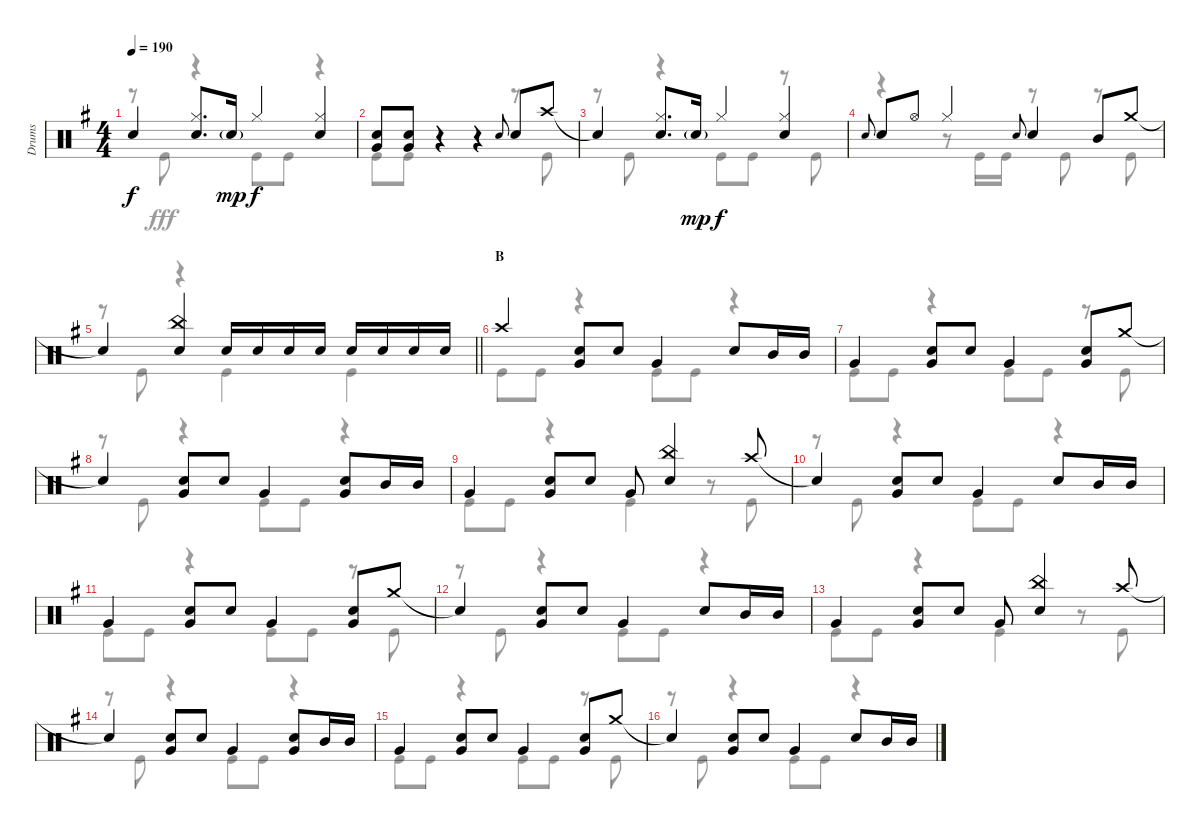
\track ("Drums" "Drums") {instrument percussion}
\staff {score}
\articulation defaults
\voice
\ts (4 4)
\tempo 190
\clef neutral
\ks g "Snare (hit)"{t}.4{dy f}
("Hi-Hat (closed)" "Snare (hit) 2").8{d} "Snare (hit) 2"{g}.16{dy mp} "Hi-Hat (closed)".4{dy f} ("Hi-Hat (closed)" "Snare (hit) 2").4 |
("Snare (hit) 2" "Very Low Tom (hit)").8 ("Snare (hit) 2" "Very Low Tom (hit)").8 r.4 r.4 "Snare (hit) 2".8{gr onbeat} "Snare (hit) 2".8 "Crash high (hit)".8 |
"Snare (hit)"{t}.4 ("Hi-Hat (closed)" "Snare (hit) 2").8{d} "Snare (hit) 2"{g}.16{dy mp} "Hi-Hat (closed)".4{dy f} ("Hi-Hat (closed)" "Snare (hit) 2").4 |
"Snare (hit) 2".8{gr onbeat} "Snare (hit) 2".8 "Hi-Hat (open)".8 "Hi-Hat (closed)".4 "Snare (hit) 2".8{gr onbeat} "Snare (hit) 2".4 "Mid Tom (hit)".8 "Crash medium (hit)".8 |
\barLineRight lightlight "Snare (hit)"{t}.4
("China (hit)" "Snare (hit) 2").4 "Snare (hit) 2".16 "Snare (hit) 2".16 "Snare (hit) 2".16 "Snare (hit) 2".16 "Snare (hit) 2".16 "Snare (hit) 2".16 "Snare (hit) 2".16 "Snare (hit) 2".16 |
\section ("" "B")
"Crash high (hit)".4 ("Snare (hit) 2" "Very Low Tom (hit)").8 "Snare (hit) 2".8 "Very Low Tom (hit)".4 "Snare (hit) 2".8 "Mid Tom (hit)".16 "Mid Tom (hit)".16 |
"Very Low Tom (hit)".4 ("Snare (hit) 2" "Very Low Tom (hit)").8 "Snare (hit) 2".8 "Very Low Tom (hit)".4 ("Snare (hit) 2" "Very Low Tom (hit)").8 "Crash medium (hit)".8 |
"Snare (hit)"{t}.4 ("Snare (hit) 2" "Very Low Tom (hit)").8 "Snare (hit) 2".8 "Very Low Tom (hit)".4 ("Snare (hit) 2" "Very Low Tom (hit)").8 "Mid Tom (hit)".16 "Mid Tom (hit)".16 |
"Very Low Tom (hit)".4 ("Snare (hit) 2" "Very Low Tom (hit)").8 "Snare (hit) 2".8 "Very Low Tom (hit)".8 ("China (hit)" "Snare (hit) 2").4 "Crash high (hit)".8 |
"Snare (hit)"{t}.4 ("Snare (hit) 2" "Very Low Tom (hit)").8 "Snare (hit) 2".8 "Very Low Tom (hit)".4 "Snare (hit) 2".8 "Mid Tom (hit)".16 "Mid Tom (hit)".16 |
"Very Low Tom (hit)".4 ("Snare (hit) 2" "Very Low Tom (hit)").8 "Snare (hit) 2".8 "Very Low Tom (hit)".4 ("Snare (hit) 2" "Very Low Tom (hit)").8 "Crash medium (hit)".8 |
"Snare (hit)"{t}.4 ("Snare (hit) 2" "Very Low Tom (hit)").8 "Snare (hit) 2".8 "Very Low Tom (hit)".4 "Snare (hit) 2".8 "Mid Tom (hit)".16 "Mid Tom (hit)".16 |
"Very Low Tom (hit)".4 ("Snare (hit) 2" "Very Low Tom (hit)").8 "Snare (hit) 2".8 "Very Low Tom (hit)".8 ("China (hit)" "Snare (hit) 2").4 "Crash high (hit)".8 |
"Snare (hit)"{t}.4 ("Snare (hit) 2" "Very Low Tom (hit)").8 "Snare (hit) 2".8 "Very Low Tom (hit)".4 ("Snare (hit) 2" "Very Low Tom (hit)").8 "Mid Tom (hit)".16 "Mid Tom (hit)".16 |
"Very Low Tom (hit)".4 ("Snare (hit) 2" "Very Low Tom (hit)").8 "Snare (hit) 2".8 "Very Low Tom (hit)".4 ("Snare (hit) 2" "Very Low Tom (hit)").8 "Crash medium (hit)".8 |
"Snare (hit)"{t}.4 ("Snare (hit) 2" "Very Low Tom (hit)").8 "Snare (hit) 2".8 "Very Low Tom (hit)".4 "Snare (hit) 2".8 "Mid Tom (hit)".16 "Mid Tom (hit)".16
\voice
\clef neutral
\ottava regular
\simile none
\ks g
r.8{dy fff} "Kick (hit)".8 r.4 "Kick (hit)".8 "Kick (hit)".8 r.4 |
"Kick (hit)".8 "Kick (hit)".8 r.4 r.4 r.8 "Kick (hit)".8 |
r.8 "Kick (hit)".8 r.4 "Kick (hit)".8 "Kick (hit)".8 r.8 "Kick (hit)".8 |
r.4 r.8 "Kick (hit)".16 "Kick (hit)".16 r.8 "Kick (hit)".8 r.8 "Kick (hit)".8 |
\barLineRight lightlight
r.8 "Kick (hit)".8 r.4 "Kick (hit)".4 "Kick (hit)".4 |
"Kick (hit)".8 "Kick (hit)".8 r.4 "Kick (hit)".8 "Kick (hit)".8 r.4 |
"Kick (hit)".8 "Kick (hit)".8 r.4 "Kick (hit)".8 "Kick (hit)".8 r.8 "Kick (hit)".8 |
r.8 "Kick (hit)".8 r.4 "Kick (hit)".8 "Kick (hit)".8 r.4 |
"Kick (hit)".8 "Kick (hit)".8 r.4 "Kick (hit)".4 r.8 "Kick (hit)".8 |
r.8 "Kick (hit)".8 r.4 "Kick (hit)".8 "Kick (hit)".8 r.4 |
"Kick (hit)".8 "Kick (hit)".8 r.4 "Kick (hit)".8 "Kick (hit)".8 r.8 "Kick (hit)".8 |
r.8 "Kick (hit)".8 r.4 "Kick (hit)".8 "Kick (hit)".8 r.4 |
"Kick (hit)".8 "Kick (hit)".8 r.4 "Kick (hit)".4 r.8 "Kick (hit)".8 |
r.8 "Kick (hit)".8 r.4 "Kick (hit)".8 "Kick (hit)".8 r.4 |
"Kick (hit)".8 "Kick (hit)".8 r.4 "Kick (hit)".8 "Kick (hit)".8 r.8 "Kick (hit)".8 |
r.8 "Kick (hit)".8 r.4 "Kick (hit)".8 "Kick (hit)".8 r.4
